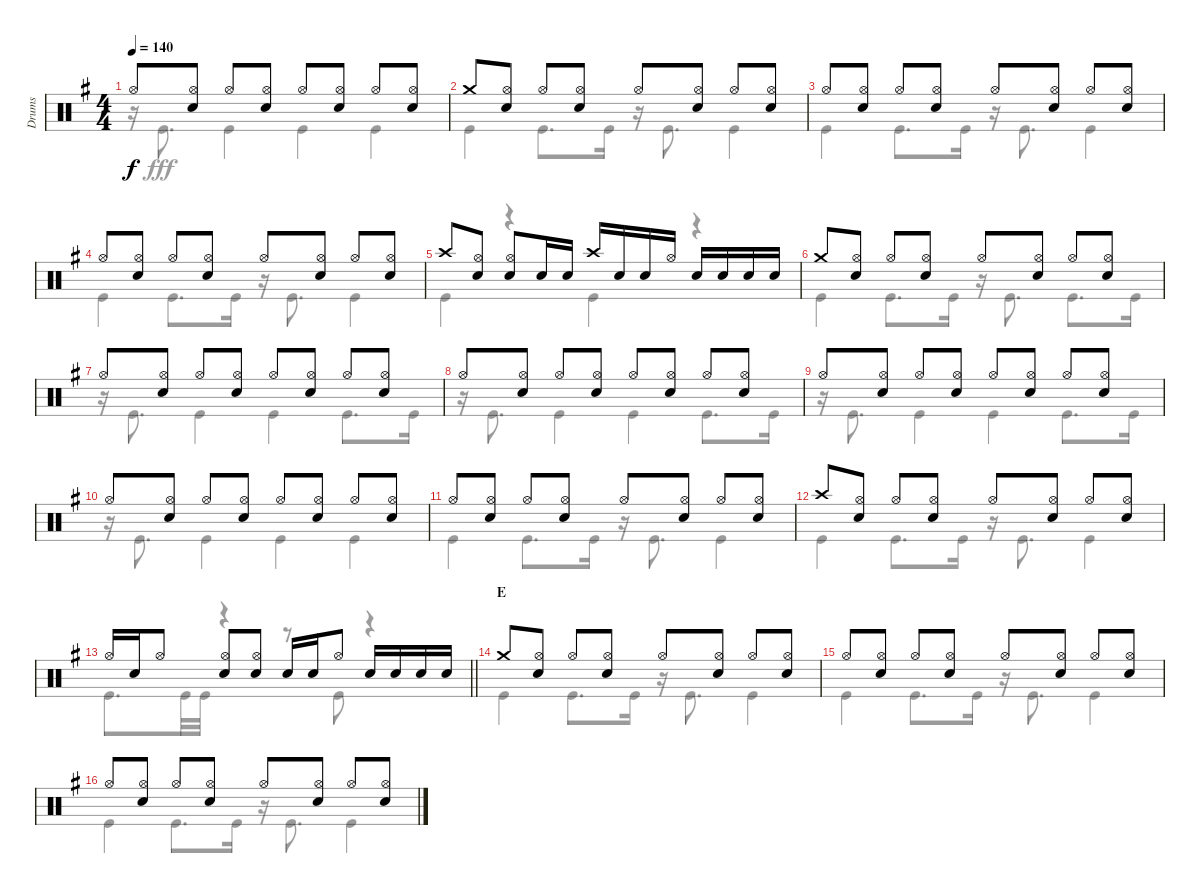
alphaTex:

\track ("Drums" "Drums") {instrument percussion}
\staff {score}
\articulation defaults
\voice
\ts (4 4)
\tempo 140
\clef neutral
\ks g "Hi-Hat (open)".8{dy f}
("Hi-Hat (open)" "Snare (hit) 2").8 "Hi-Hat (open)".8 ("Hi-Hat (open)" "Snare (hit) 2").8 "Hi-Hat (open)".8 ("Hi-Hat (open)" "Snare (hit) 2").8 "Hi-Hat (open)".8 ("Hi-Hat (open)" "Snare (hit) 2").8 |
"Crash medium (hit)".8 ("Hi-Hat (open)" "Snare (hit) 2").8 "Hi-Hat (open)".8 ("Hi-Hat (open)" "Snare (hit) 2").8 "Hi-Hat (open)".8 ("Hi-Hat (open)" "Snare (hit) 2").8 "Hi-Hat (open)".8 ("Hi-Hat (open)" "Snare (hit) 2").8 |
"Hi-Hat (open)".8 ("Hi-Hat (open)" "Snare (hit) 2").8 "Hi-Hat (open)".8 ("Hi-Hat (open)" "Snare (hit) 2").8 "Hi-Hat (open)".8 ("Hi-Hat (open)" "Snare (hit) 2").8 "Hi-Hat (open)".8 ("Hi-Hat (open)" "Snare (hit) 2").8 |
"Hi-Hat (open)".8 ("Hi-Hat (open)" "Snare (hit) 2").8 "Hi-Hat (open)".8 ("Hi-Hat (open)" "Snare (hit) 2").8 "Hi-Hat (open)".8 ("Hi-Hat (open)" "Snare (hit) 2").8 "Hi-Hat (open)".8 ("Hi-Hat (open)" "Snare (hit) 2").8 |
"Crash high (hit)".8 ("Hi-Hat (open)" "Snare (hit) 2").8 ("Hi-Hat (open)" "Snare (hit) 2").8 "Snare (hit) 2".16 "Snare (hit) 2".16 "Crash high (hit)".16 "Snare (hit) 2".16 "Snare (hit) 2".16 "Hi-Hat (open)".16 "Snare (hit) 2".16 "Snare (hit) 2".16 "Snare (hit) 2".16 "Snare (hit) 2".16 |
"Crash medium (hit)".8 ("Hi-Hat (open)" "Snare (hit) 2").8 "Hi-Hat (open)".8 ("Hi-Hat (open)" "Snare (hit) 2").8 "Hi-Hat (open)".8 ("Hi-Hat (open)" "Snare (hit) 2").8 "Hi-Hat (open)".8 ("Hi-Hat (open)" "Snare (hit) 2").8 |
"Hi-Hat (open)".8 ("Hi-Hat (open)" "Snare (hit) 2").8 "Hi-Hat (open)".8 ("Hi-Hat (open)" "Snare (hit) 2").8 "Hi-Hat (open)".8 ("Hi-Hat (open)" "Snare (hit) 2").8 "Hi-Hat (open)".8 ("Hi-Hat (open)" "Snare (hit) 2").8 |
"Hi-Hat (open)".8 ("Hi-Hat (open)" "Snare (hit) 2").8 "Hi-Hat (open)".8 ("Hi-Hat (open)" "Snare (hit) 2").8 "Hi-Hat (open)".8 ("Hi-Hat (open)" "Snare (hit) 2").8 "Hi-Hat (open)".8 ("Hi-Hat (open)" "Snare (hit) 2").8 |
"Hi-Hat (open)".8 ("Hi-Hat (open)" "Snare (hit) 2").8 "Hi-Hat (open)".8 ("Hi-Hat (open)" "Snare (hit) 2").8 "Hi-Hat (open)".8 ("Hi-Hat (open)" "Snare (hit) 2").8 "Hi-Hat (open)".8 ("Hi-Hat (open)" "Snare (hit) 2").8 |
"Hi-Hat (open)".8 ("Hi-Hat (open)" "Snare (hit) 2").8 "Hi-Hat (open)".8 ("Hi-Hat (open)" "Snare (hit) 2").8 "Hi-Hat (open)".8 ("Hi-Hat (open)" "Snare (hit) 2").8 "Hi-Hat (open)".8 ("Hi-Hat (open)" "Snare (hit) 2").8 |
"Hi-Hat (open)".8 ("Hi-Hat (open)" "Snare (hit) 2").8 "Hi-Hat (open)".8 ("Hi-Hat (open)" "Snare (hit) 2").8 "Hi-Hat (open)".8 ("Hi-Hat (open)" "Snare (hit) 2").8 "Hi-Hat (open)".8 ("Hi-Hat (open)" "Snare (hit) 2").8 |
"Crash high (hit)".8 ("Hi-Hat (open)" "Snare (hit) 2").8 "Hi-Hat (open)".8 ("Hi-Hat (open)" "Snare (hit) 2").8 "Hi-Hat (open)".8 ("Hi-Hat (open)" "Snare (hit) 2").8 "Hi-Hat (open)".8 ("Hi-Hat (open)" "Snare (hit) 2").8 |
\barLineRight lightlight "Hi-Hat (open)".16 "Snare (hit) 2".16 "Hi-Hat (open)".8
("Hi-Hat (open)" "Snare (hit) 2").8 ("Hi-Hat (open)" "Snare (hit) 2").8 "Snare (hit) 2".16 "Snare (hit) 2".16 "Hi-Hat (open)".8 "Snare (hit) 2".16 "Snare (hit) 2".16 "Snare (hit) 2".16 "Snare (hit) 2".16 |
\section ("" "E")
"Crash medium (hit)".8 ("Hi-Hat (open)" "Snare (hit) 2").8 "Hi-Hat (open)".8 ("Hi-Hat (open)" "Snare (hit) 2").8 "Hi-Hat (open)".8 ("Hi-Hat (open)" "Snare (hit) 2").8 "Hi-Hat (open)".8 ("Hi-Hat (open)" "Snare (hit) 2").8 |
"Hi-Hat (open)".8 ("Hi-Hat (open)" "Snare (hit) 2").8 "Hi-Hat (open)".8 ("Hi-Hat (open)" "Snare (hit) 2").8 "Hi-Hat (open)".8 ("Hi-Hat (open)" "Snare (hit) 2").8 "Hi-Hat (open)".8 ("Hi-Hat (open)" "Snare (hit) 2").8 |
"Hi-Hat (open)".8 ("Hi-Hat (open)" "Snare (hit) 2").8 "Hi-Hat (open)".8 ("Hi-Hat (open)" "Snare (hit) 2").8 "Hi-Hat (open)".8 ("Hi-Hat (open)" "Snare (hit) 2").8 "Hi-Hat (open)".8 ("Hi-Hat (open)" "Snare (hit) 2").8
\voice
\clef neutral
\ottava regular
\simile none
\ks g
r.16{dy fff} "Kick (hit)".8{d} "Kick (hit)".4 "Kick (hit)".4 "Kick (hit)".4 |
"Kick (hit)".4 "Kick (hit)".8{d} "Kick (hit)".16 r.16 "Kick (hit)".8{d} "Kick (hit)".4 |
"Kick (hit)".4 "Kick (hit)".8{d} "Kick (hit)".16 r.16 "Kick (hit)".8{d} "Kick (hit)".4 |
"Kick (hit)".4 "Kick (hit)".8{d} "Kick (hit)".16 r.16 "Kick (hit)".8{d} "Kick (hit)".4 |
"Kick (hit)".4 r.4 "Kick (hit)".4 r.4 |
"Kick (hit)".4 "Kick (hit)".8{d} "Kick (hit)".16 r.16 "Kick (hit)".8{d} "Kick (hit)".8{d} "Kick (hit)".16 |
r.16 "Kick (hit)".8{d} "Kick (hit)".4 "Kick (hit)".4 "Kick (hit)".8{d} "Kick (hit)".16 |
r.16 "Kick (hit)".8{d} "Kick (hit)".4 "Kick (hit)".4 "Kick (hit)".8{d} "Kick (hit)".16 |
r.16 "Kick (hit)".8{d} "Kick (hit)".4 "Kick (hit)".4 "Kick (hit)".8{d} "Kick (hit)".16 |
r.16 "Kick (hit)".8{d} "Kick (hit)".4 "Kick (hit)".4 "Kick (hit)".4 |
"Kick (hit)".4 "Kick (hit)".8{d} "Kick (hit)".16 r.16 "Kick (hit)".8{d} "Kick (hit)".4 |
"Kick (hit)".4 "Kick (hit)".8{d} "Kick (hit)".16 r.16 "Kick (hit)".8{d} "Kick (hit)".4 |
\barLineRight lightlight "Kick (hit)".8{d} "Kick (hit)".32 "Kick (hit)".32
r.4 r.8 "Kick (hit)".8 r.4 |
"Kick (hit)".4 "Kick (hit)".8{d} "Kick (hit)".16 r.16 "Kick (hit)".8{d} "Kick (hit)".4 |
"Kick (hit)".4 "Kick (hit)".8{d} "Kick (hit)".16 r.16 "Kick (hit)".8{d} "Kick (hit)".4 |
"Kick (hit)".4 "Kick (hit)".8{d} "Kick (hit)".16 r.16 "Kick (hit)".8{d} "Kick (hit)".4
